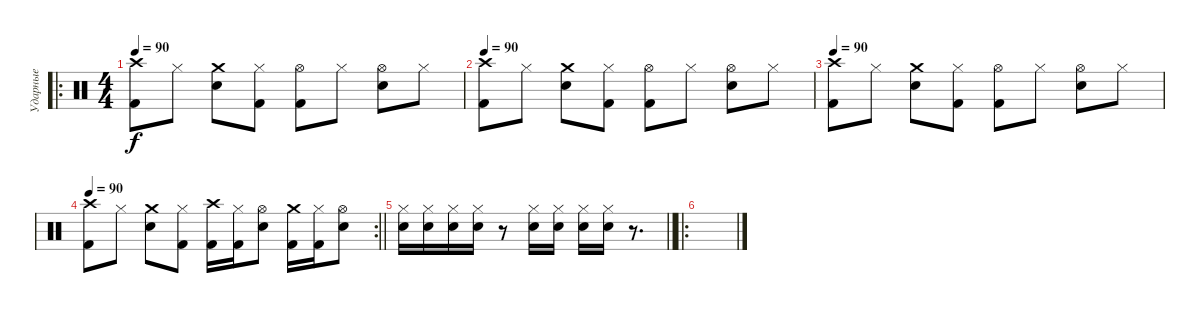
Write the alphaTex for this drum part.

\track ("Ударные" "Ударные") {solo instrument percussion}
\staff {score}
\articulation defaults
\ro
\ts (4 4)
\tempo 90
\clef neutral
\ks c
("Crash high (hit)" "Kick (hit) 2").8{dy f} "Hi-Hat (closed)".8 ("Crash medium (hit)" "Snare (hit) 2").8 ("Hi-Hat (closed)" "Kick (hit) 2").8 ("Hi-Hat (open)" "Kick (hit) 2").8 "Hi-Hat (closed)".8 ("Hi-Hat (open)" "Snare (hit) 2").8 "Hi-Hat (closed)".8 |
\tempo 90
("Crash high (hit)" "Kick (hit) 2").8 "Hi-Hat (closed)".8 ("Crash medium (hit)" "Snare (hit) 2").8 ("Hi-Hat (closed)" "Kick (hit) 2").8 ("Hi-Hat (open)" "Kick (hit) 2").8 "Hi-Hat (closed)".8 ("Hi-Hat (open)" "Snare (hit) 2").8 "Hi-Hat (closed)".8 |
\tempo 90
("Crash high (hit)" "Kick (hit) 2").8 "Hi-Hat (closed)".8 ("Crash medium (hit)" "Snare (hit) 2").8 ("Hi-Hat (closed)" "Kick (hit) 2").8 ("Hi-Hat (open)" "Kick (hit) 2").8 "Hi-Hat (closed)".8 ("Hi-Hat (open)" "Snare (hit) 2").8 "Hi-Hat (closed)".8 |
\rc 2
\tempo 90
\barLineRight lightlight
("Crash high (hit)" "Kick (hit) 2").8 "Hi-Hat (closed)".8 ("Crash medium (hit)" "Snare (hit) 2").8 ("Hi-Hat (closed)" "Kick (hit) 2").8 ("Crash high (hit)" "Kick (hit) 2").16 ("Hi-Hat (closed)" "Kick (hit) 2").16 ("Hi-Hat (open)" "Snare (hit) 2").8 ("Crash medium (hit)" "Kick (hit) 2").16 ("Hi-Hat (closed)" "Kick (hit) 2").16 ("Hi-Hat (open)" "Snare (hit) 2").8 |
\barLineRight lightlight
("Snare (hit) 2" "Hi-Hat (closed)").16 ("Snare (hit) 2" "Hi-Hat (closed)").16 ("Snare (hit) 2" "Hi-Hat (closed)").16 ("Snare (hit) 2" "Hi-Hat (closed)").16 r.8 ("Snare (hit) 2" "Hi-Hat (closed)").16 ("Snare (hit) 2" "Hi-Hat (closed)").16 ("Snare (hit) 2" "Hi-Hat (closed)").16 ("Snare (hit) 2" "Hi-Hat (closed)").16 r.8{d} |
\ro
